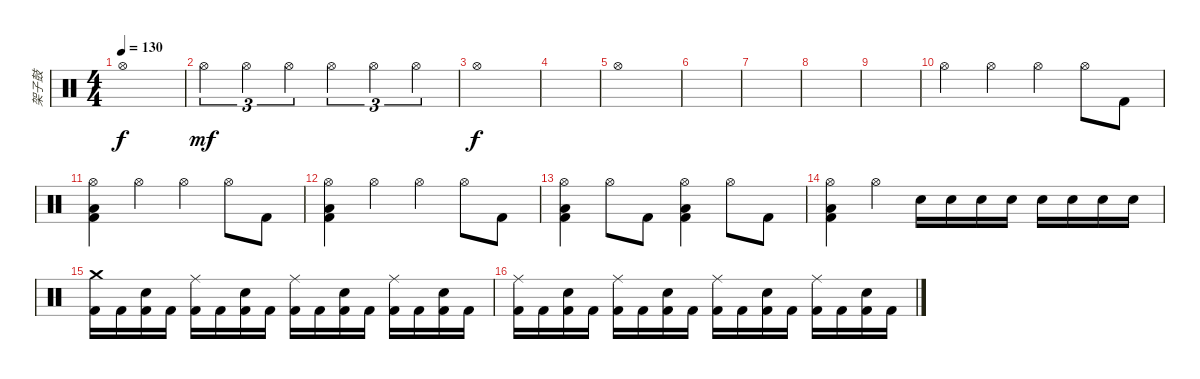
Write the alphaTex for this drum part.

\track ("架子鼓" "架子鼓") {instrument percussion}
\staff {score}
\articulation defaults
\ts (4 4)
\tempo 130
\clef neutral
\ks c "Hi-Hat (open)".1{dy f}
|
"Hi-Hat (open)".4{tu (3 2) dy mf} "Hi-Hat (open)".4{tu (3 2)} "Hi-Hat (open)".4{tu (3 2)} "Hi-Hat (open)".4{tu (3 2)} "Hi-Hat (open)".4{tu (3 2)} "Hi-Hat (open)".4{tu (3 2)} |
"Hi-Hat (open)".1{dy f} |
|
"Hi-Hat (open)".1 |
|
|
|
|
"Hi-Hat (open)".4 "Hi-Hat (open)".4 "Hi-Hat (open)".4 "Hi-Hat (open)".8 "Kick (hit) 2".8 |
("Hi-Hat (open)" "Low Floor Tom (hit)" "Kick (hit) 2").4 "Hi-Hat (open)".4 "Hi-Hat (open)".4 "Hi-Hat (open)".8 "Kick (hit) 2".8 |
("Hi-Hat (open)" "Low Floor Tom (hit)" "Kick (hit) 2").4 "Hi-Hat (open)".4 "Hi-Hat (open)".4 "Hi-Hat (open)".8 "Kick (hit) 2".8 |
("Hi-Hat (open)" "Low Floor Tom (hit)" "Kick (hit) 2").4 "Hi-Hat (open)".8 "Kick (hit) 2".8 ("Hi-Hat (open)" "Low Floor Tom (hit)" "Kick (hit) 2").4 "Hi-Hat (open)".8 "Kick (hit) 2".8 |
("Hi-Hat (open)" "Low Floor Tom (hit)" "Kick (hit) 2").4 "Hi-Hat (open)".4 "Snare (hit) 2".16 "Snare (hit) 2".16 "Snare (hit) 2".16 "Snare (hit) 2".16 "Snare (hit) 2".16 "Snare (hit) 2".16 "Snare (hit) 2".16 "Snare (hit) 2".16 |
("Crash medium (hit)" "Kick (hit) 2").16 "Kick (hit) 2".16 ("Snare (hit) 2" "Kick (hit) 2").16 "Kick (hit) 2".16 ("Ride (middle)" "Kick (hit) 2").16 "Kick (hit) 2".16 ("Snare (hit) 2" "Kick (hit) 2").16 "Kick (hit) 2".16 ("Ride (middle)" "Kick (hit) 2").16 "Kick (hit) 2".16 ("Snare (hit) 2" "Kick (hit) 2").16 "Kick (hit) 2".16 ("Ride (middle)" "Kick (hit) 2").16 "Kick (hit) 2".16 ("Snare (hit) 2" "Kick (hit) 2").16 "Kick (hit) 2".16 |
("Ride (middle)" "Kick (hit) 2").16 "Kick (hit) 2".16 ("Snare (hit) 2" "Kick (hit) 2").16 "Kick (hit) 2".16 ("Ride (middle)" "Kick (hit) 2").16 "Kick (hit) 2".16 ("Snare (hit) 2" "Kick (hit) 2").16 "Kick (hit) 2".16 ("Ride (middle)" "Kick (hit) 2").16 "Kick (hit) 2".16 ("Snare (hit) 2" "Kick (hit) 2").16 "Kick (hit) 2".16 ("Ride (middle)" "Kick (hit) 2").16 "Kick (hit) 2".16 ("Snare (hit) 2" "Kick (hit) 2").16 "Kick (hit) 2".16
